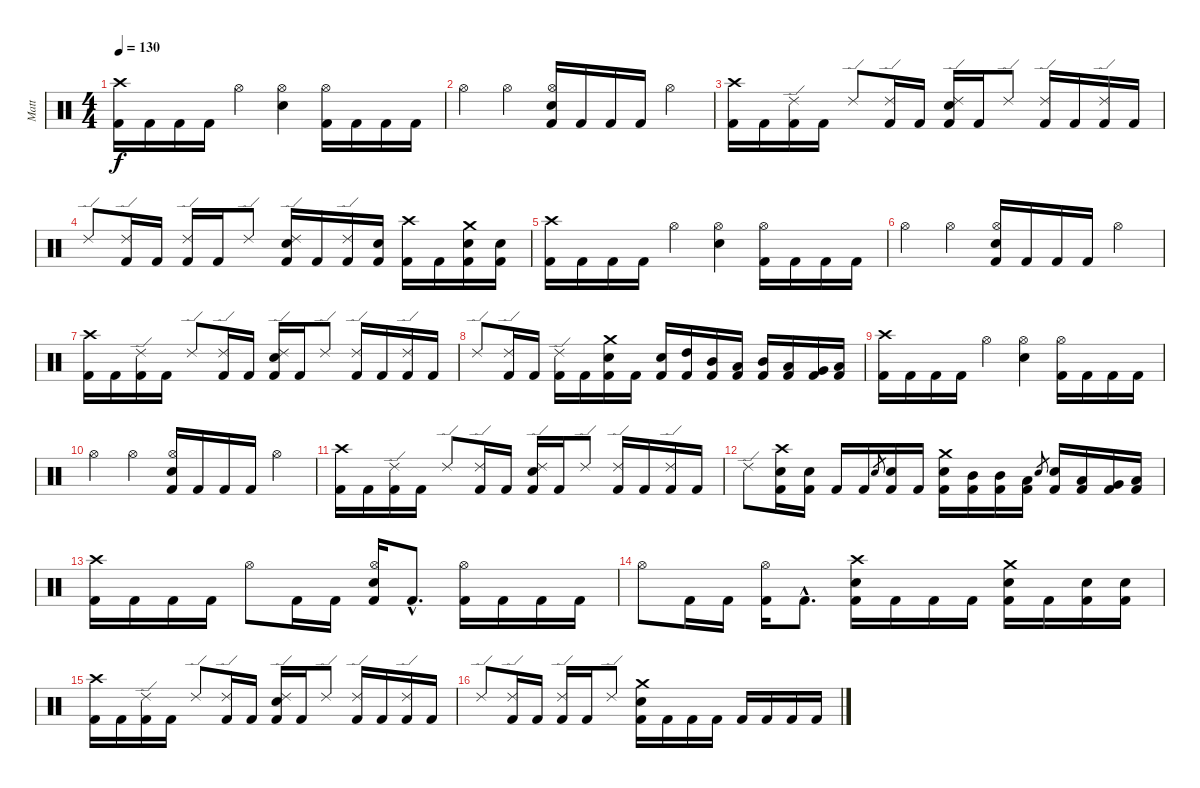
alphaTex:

\track ("Matt" "Matt") {instrument percussion}
\staff {score}
\articulation defaults
\ts (4 4)
\tempo 130
\clef neutral
\ks c
("Crash high (hit)" "Kick (hit) 2").16{dy f} "Kick (hit) 2".16 "Kick (hit) 2".16 "Kick (hit) 2".16 "Hi-Hat (open)".4 ("Hi-Hat (open)" "Electric Snare (hit)").4 ("Hi-Hat (open)" "Kick (hit) 2").16 "Kick (hit) 2".16 "Kick (hit) 2".16 "Kick (hit) 2".16 |
"Hi-Hat (open)".4 "Hi-Hat (open)".4 ("Hi-Hat (open)" "Electric Snare (hit)" "Kick (hit) 2").16 "Kick (hit) 2".16 "Kick (hit) 2".16 "Kick (hit) 2".16 "Hi-Hat (open)".4 |
("Crash high (hit)" "Kick (hit) 2").16 "Kick (hit) 2".16 ("Ride (edge) 2" "Kick (hit) 2").16 "Kick (hit) 2".16 "Ride (edge) 2".8 ("Ride (edge) 2" "Kick (hit) 2").16 "Kick (hit) 2".16 ("Ride (edge) 2" "Electric Snare (hit)" "Kick (hit) 2").16 "Kick (hit) 2".16 "Ride (edge) 2".8 ("Ride (edge) 2" "Kick (hit) 2").16 "Kick (hit) 2".16 ("Ride (edge) 2" "Kick (hit) 2").16 "Kick (hit) 2".16 |
"Ride (edge) 2".8 ("Ride (edge) 2" "Kick (hit) 2").16 "Kick (hit) 2".16 ("Ride (edge) 2" "Kick (hit) 2").16 "Kick (hit) 2".16 "Ride (edge) 2".8 ("Ride (edge) 2" "Electric Snare (hit)" "Kick (hit) 2").16 "Kick (hit) 2".16 ("Ride (edge) 2" "Kick (hit) 2").16 ("Electric Snare (hit)" "Kick (hit) 2").16 ("Crash high (hit)" "Kick (hit) 2").16 "Kick (hit) 2".16 ("Crash medium (hit)" "Electric Snare (hit)" "Kick (hit) 2").16 ("Electric Snare (hit)" "Kick (hit) 2").16 |
("Crash high (hit)" "Kick (hit) 2").16 "Kick (hit) 2".16 "Kick (hit) 2".16 "Kick (hit) 2".16 "Hi-Hat (open)".4 ("Hi-Hat (open)" "Electric Snare (hit)").4 ("Hi-Hat (open)" "Kick (hit) 2").16 "Kick (hit) 2".16 "Kick (hit) 2".16 "Kick (hit) 2".16 |
"Hi-Hat (open)".4 "Hi-Hat (open)".4 ("Hi-Hat (open)" "Electric Snare (hit)" "Kick (hit) 2").16 "Kick (hit) 2".16 "Kick (hit) 2".16 "Kick (hit) 2".16 "Hi-Hat (open)".4 |
("Crash high (hit)" "Kick (hit) 2").16 "Kick (hit) 2".16 ("Ride (edge) 2" "Kick (hit) 2").16 "Kick (hit) 2".16 "Ride (edge) 2".8 ("Ride (edge) 2" "Kick (hit) 2").16 "Kick (hit) 2".16 ("Ride (edge) 2" "Electric Snare (hit)" "Kick (hit) 2").16 "Kick (hit) 2".16 "Ride (edge) 2".8 ("Ride (edge) 2" "Kick (hit) 2").16 "Kick (hit) 2".16 ("Ride (edge) 2" "Kick (hit) 2").16 "Kick (hit) 2".16 |
"Ride (edge) 2".8 ("Ride (edge) 2" "Kick (hit) 2").16 "Kick (hit) 2".16 ("Ride (edge) 2" "Kick (hit) 2").16 "Kick (hit) 2".16 ("Crash medium (hit)" "Electric Snare (hit)" "Kick (hit) 2").16 "Kick (hit) 2".16 ("Electric Snare (hit)" "Kick (hit) 2").16 ("High Tom (hit)" "Kick (hit) 2").16 ("Mid Tom (hit)" "Kick (hit) 2").16 ("Low Tom (hit)" "Kick (hit) 2").16 ("Mid Tom (hit)" "Kick (hit) 2").16 ("Low Tom (hit)" "Kick (hit) 2").16 ("Very Low Tom (hit)" "Kick (hit) 2").16 ("Low Floor Tom (hit)" "Kick (hit) 2").16 |
("Crash high (hit)" "Kick (hit) 2").16 "Kick (hit) 2".16 "Kick (hit) 2".16 "Kick (hit) 2".16 "Hi-Hat (open)".4 ("Hi-Hat (open)" "Electric Snare (hit)").4 ("Hi-Hat (open)" "Kick (hit) 2").16 "Kick (hit) 2".16 "Kick (hit) 2".16 "Kick (hit) 2".16 |
"Hi-Hat (open)".4 "Hi-Hat (open)".4 ("Hi-Hat (open)" "Electric Snare (hit)" "Kick (hit) 2").16 "Kick (hit) 2".16 "Kick (hit) 2".16 "Kick (hit) 2".16 "Hi-Hat (open)".4 |
("Crash high (hit)" "Kick (hit) 2").16 "Kick (hit) 2".16 ("Ride (edge) 2" "Kick (hit) 2").16 "Kick (hit) 2".16 "Ride (edge) 2".8 ("Ride (edge) 2" "Kick (hit) 2").16 "Kick (hit) 2".16 ("Ride (edge) 2" "Electric Snare (hit)" "Kick (hit) 2").16 "Kick (hit) 2".16 "Ride (edge) 2".8 ("Ride (edge) 2" "Kick (hit) 2").16 "Kick (hit) 2".16 ("Ride (edge) 2" "Kick (hit) 2").16 "Kick (hit) 2".16 |
"Ride (edge) 2".8 ("Crash high (hit)" "Electric Snare (hit)" "Kick (hit) 2").16 ("Electric Snare (hit)" "Kick (hit) 2").16 "Kick (hit) 2".16 "Kick (hit) 2".16 "Electric Snare (hit)".8{gr} ("Electric Snare (hit)" "Kick (hit) 2").16 "Kick (hit) 2".16 ("Crash medium (hit)" "Electric Snare (hit)" "Kick (hit) 2").16 ("Mid Tom (hit)" "Kick (hit) 2").16 ("Mid Tom (hit)" "Kick (hit) 2").16 ("Low Tom (hit)" "Kick (hit) 2").16 "Electric Snare (hit)".8{gr} ("Electric Snare (hit)" "Kick (hit) 2").16 ("Low Tom (hit)" "Kick (hit) 2").16 ("Very Low Tom (hit)" "Kick (hit) 2").16 ("Low Floor Tom (hit)" "Kick (hit) 2").16 |
("Crash high (hit)" "Kick (hit) 2").16 "Kick (hit) 2".16 "Kick (hit) 2".16 "Kick (hit) 2".16 "Hi-Hat (open)".8 "Kick (hit) 2".16 "Kick (hit) 2".16 ("Hi-Hat (open)" "Electric Snare (hit)" "Kick (hit) 2").16 "Kick (hit) 2"{hac}.8{d} ("Hi-Hat (open)" "Kick (hit) 2").16 "Kick (hit) 2".16 "Kick (hit) 2".16 "Kick (hit) 2".16 |
"Hi-Hat (open)".8 "Kick (hit) 2".16 "Kick (hit) 2".16 ("Hi-Hat (open)" "Kick (hit) 2").16 "Kick (hit) 2"{hac}.8{d} ("Crash high (hit)" "Electric Snare (hit)" "Kick (hit) 2").16 "Kick (hit) 2".16 "Kick (hit) 2".16 "Kick (hit) 2".16 ("Crash medium (hit)" "Electric Snare (hit)" "Kick (hit) 2").16 "Kick (hit) 2".16 ("Electric Snare (hit)" "Kick (hit) 2").16 ("Electric Snare (hit)" "Kick (hit) 2").16 |
("Crash high (hit)" "Kick (hit) 2").16 "Kick (hit) 2".16 ("Ride (edge) 2" "Kick (hit) 2").16 "Kick (hit) 2".16 "Ride (edge) 2".8 ("Ride (edge) 2" "Kick (hit) 2").16 "Kick (hit) 2".16 ("Ride (edge) 2" "Electric Snare (hit)" "Kick (hit) 2").16 "Kick (hit) 2".16 "Ride (edge) 2".8 ("Ride (edge) 2" "Kick (hit) 2").16 "Kick (hit) 2".16 ("Ride (edge) 2" "Kick (hit) 2").16 "Kick (hit) 2".16 |
"Ride (edge) 2".8 ("Ride (edge) 2" "Kick (hit) 2").16 "Kick (hit) 2".16 ("Ride (edge) 2" "Kick (hit) 2").16 "Kick (hit) 2".16 "Ride (edge) 2".8 ("Crash medium (hit)" "Electric Snare (hit)" "Kick (hit) 2").16 "Kick (hit) 2".16 "Kick (hit) 2".16 "Kick (hit) 2".16 "Kick (hit) 2".16 "Kick (hit) 2".16 "Kick (hit) 2".16 "Kick (hit) 2".16
